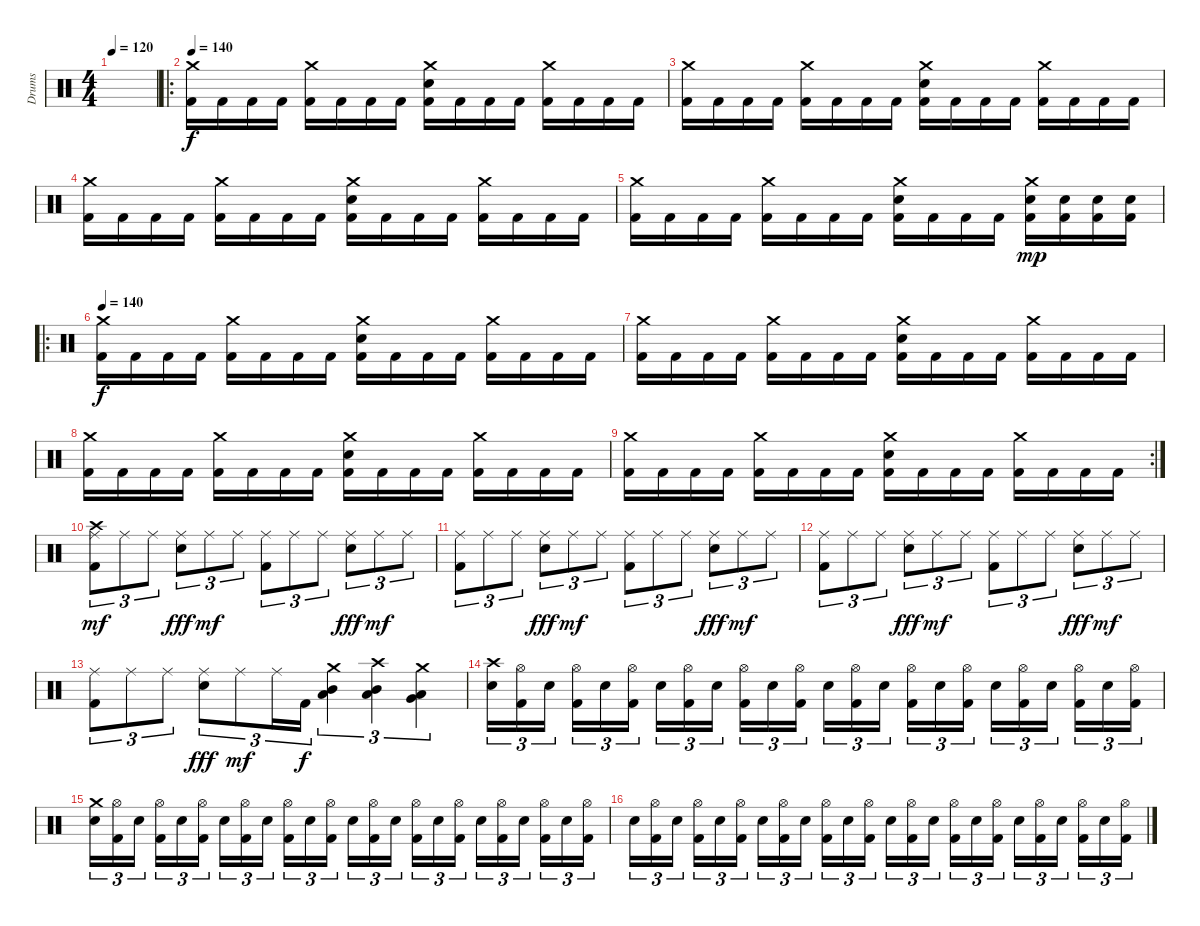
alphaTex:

\track ("Drums" "Drums") {instrument percussion}
\staff {score}
\articulation defaults
\ts (4 4)
\tempo 120
\clef neutral
\ks c
|
\ro
\tempo 140
("Crash medium (hit)" "Kick (hit) 2").16{volume 16} "Kick (hit) 2".16 "Kick (hit) 2".16 "Kick (hit) 2".16 ("Crash medium (hit)" "Kick (hit) 2").16 "Kick (hit) 2".16 "Kick (hit) 2".16 "Kick (hit) 2".16 ("Crash medium (hit)" "Electric Snare (hit)" "Kick (hit) 2").16 "Kick (hit) 2".16 "Kick (hit) 2".16 "Kick (hit) 2".16 ("Crash medium (hit)" "Kick (hit) 2").16 "Kick (hit) 2".16 "Kick (hit) 2".16 "Kick (hit) 2".16 |
("Crash medium (hit)" "Kick (hit) 2").16 "Kick (hit) 2".16 "Kick (hit) 2".16 "Kick (hit) 2".16 ("Crash medium (hit)" "Kick (hit) 2").16 "Kick (hit) 2".16 "Kick (hit) 2".16 "Kick (hit) 2".16 ("Crash medium (hit)" "Electric Snare (hit)" "Kick (hit) 2").16 "Kick (hit) 2".16 "Kick (hit) 2".16 "Kick (hit) 2".16 ("Crash medium (hit)" "Kick (hit) 2").16 "Kick (hit) 2".16 "Kick (hit) 2".16 "Kick (hit) 2".16 |
("Crash medium (hit)" "Kick (hit) 2").16{volume 16} "Kick (hit) 2".16 "Kick (hit) 2".16 "Kick (hit) 2".16 ("Crash medium (hit)" "Kick (hit) 2").16 "Kick (hit) 2".16 "Kick (hit) 2".16 "Kick (hit) 2".16 ("Crash medium (hit)" "Electric Snare (hit)" "Kick (hit) 2").16 "Kick (hit) 2".16 "Kick (hit) 2".16 "Kick (hit) 2".16 ("Crash medium (hit)" "Kick (hit) 2").16 "Kick (hit) 2".16 "Kick (hit) 2".16 "Kick (hit) 2".16 |
("Crash medium (hit)" "Kick (hit) 2").16{volume 16} "Kick (hit) 2".16 "Kick (hit) 2".16 "Kick (hit) 2".16 ("Crash medium (hit)" "Kick (hit) 2").16 "Kick (hit) 2".16 "Kick (hit) 2".16 "Kick (hit) 2".16 ("Crash medium (hit)" "Electric Snare (hit)" "Kick (hit) 2").16 "Kick (hit) 2".16 "Kick (hit) 2".16 "Kick (hit) 2".16 ("Crash medium (hit)" "Electric Snare (hit)" "Kick (hit) 2").16{dy mp} ("Electric Snare (hit)" "Kick (hit) 2").16 ("Electric Snare (hit)" "Kick (hit) 2").16 ("Electric Snare (hit)" "Kick (hit) 2").16 |
\ro
\tempo 140
("Crash medium (hit)" "Kick (hit) 2").16{dy f volume 16} "Kick (hit) 2".16 "Kick (hit) 2".16 "Kick (hit) 2".16 ("Crash medium (hit)" "Kick (hit) 2").16 "Kick (hit) 2".16 "Kick (hit) 2".16 "Kick (hit) 2".16 ("Crash medium (hit)" "Electric Snare (hit)" "Kick (hit) 2").16 "Kick (hit) 2".16 "Kick (hit) 2".16 "Kick (hit) 2".16 ("Crash medium (hit)" "Kick (hit) 2").16 "Kick (hit) 2".16 "Kick (hit) 2".16 "Kick (hit) 2".16 |
("Crash medium (hit)" "Kick (hit) 2").16 "Kick (hit) 2".16 "Kick (hit) 2".16 "Kick (hit) 2".16 ("Crash medium (hit)" "Kick (hit) 2").16 "Kick (hit) 2".16 "Kick (hit) 2".16 "Kick (hit) 2".16 ("Crash medium (hit)" "Electric Snare (hit)" "Kick (hit) 2").16 "Kick (hit) 2".16 "Kick (hit) 2".16 "Kick (hit) 2".16 ("Crash medium (hit)" "Kick (hit) 2").16 "Kick (hit) 2".16 "Kick (hit) 2".16 "Kick (hit) 2".16 |
("Crash medium (hit)" "Kick (hit) 2").16{volume 16} "Kick (hit) 2".16 "Kick (hit) 2".16 "Kick (hit) 2".16 ("Crash medium (hit)" "Kick (hit) 2").16 "Kick (hit) 2".16 "Kick (hit) 2".16 "Kick (hit) 2".16 ("Crash medium (hit)" "Electric Snare (hit)" "Kick (hit) 2").16 "Kick (hit) 2".16 "Kick (hit) 2".16 "Kick (hit) 2".16 ("Crash medium (hit)" "Kick (hit) 2").16 "Kick (hit) 2".16 "Kick (hit) 2".16 "Kick (hit) 2".16 |
\rc 2
("Crash medium (hit)" "Kick (hit) 2").16{volume 16} "Kick (hit) 2".16 "Kick (hit) 2".16 "Kick (hit) 2".16 ("Crash medium (hit)" "Kick (hit) 2").16 "Kick (hit) 2".16 "Kick (hit) 2".16 "Kick (hit) 2".16 ("Crash medium (hit)" "Electric Snare (hit)" "Kick (hit) 2").16 "Kick (hit) 2".16 "Kick (hit) 2".16 "Kick (hit) 2".16 ("Crash medium (hit)" "Kick (hit) 2").16 "Kick (hit) 2".16 "Kick (hit) 2".16 "Kick (hit) 2".16 |
("Crash high (hit)" "Ride (middle)" "Kick (hit) 2").8{tu (3 2) dy mf} "Ride (middle)".8{tu (3 2)} "Ride (middle)".8{tu (3 2)} ("Ride (middle)" "Electric Snare (hit)").8{tu (3 2) dy fff} "Ride (middle)".8{tu (3 2) dy mf} "Ride (middle)".8{tu (3 2)} ("Ride (middle)" "Kick (hit) 2").8{tu (3 2)} "Ride (middle)".8{tu (3 2)} "Ride (middle)".8{tu (3 2)} ("Ride (middle)" "Electric Snare (hit)").8{tu (3 2) dy fff} "Ride (middle)".8{tu (3 2) dy mf} "Ride (middle)".8{tu (3 2)} |
("Ride (middle)" "Kick (hit) 2").8{tu (3 2)} "Ride (middle)".8{tu (3 2)} "Ride (middle)".8{tu (3 2)} ("Ride (middle)" "Electric Snare (hit)").8{tu (3 2) dy fff} "Ride (middle)".8{tu (3 2) dy mf} "Ride (middle)".8{tu (3 2)} ("Ride (middle)" "Kick (hit) 2").8{tu (3 2)} "Ride (middle)".8{tu (3 2)} "Ride (middle)".8{tu (3 2)} ("Ride (middle)" "Electric Snare (hit)").8{tu (3 2) dy fff} "Ride (middle)".8{tu (3 2) dy mf} "Ride (middle)".8{tu (3 2)} |
("Ride (middle)" "Kick (hit) 2").8{tu (3 2)} "Ride (middle)".8{tu (3 2)} "Ride (middle)".8{tu (3 2)} ("Ride (middle)" "Electric Snare (hit)").8{tu (3 2) dy fff} "Ride (middle)".8{tu (3 2) dy mf} "Ride (middle)".8{tu (3 2)} ("Ride (middle)" "Kick (hit) 2").8{tu (3 2)} "Ride (middle)".8{tu (3 2)} "Ride (middle)".8{tu (3 2)} ("Ride (middle)" "Electric Snare (hit)").8{tu (3 2) dy fff} "Ride (middle)".8{tu (3 2) dy mf} "Ride (middle)".8{tu (3 2)} |
("Ride (middle)" "Kick (hit) 2").8{tu (3 2)} "Ride (middle)".8{tu (3 2)} "Ride (middle)".8{tu (3 2)} ("Ride (middle)" "Electric Snare (hit)").8{tu (3 2) dy fff} "Ride (middle)".8{tu (3 2) dy mf} "Ride (middle)".16{tu (3 2)} "Kick (hit) 2".16{tu (3 2) dy f} ("Crash medium (hit)" "Mid Tom (hit)" "Low Tom (hit)").4{tu (3 2)} ("Crash high (hit)" "Mid Tom (hit)" "Low Tom (hit)").4{tu (3 2)} ("Crash medium (hit)" "Low Tom (hit)" "Very Low Tom (hit)").4{tu (3 2)} |
("Crash high (hit)" "Electric Snare (hit)").16{tu (3 2)} ("Hi-Hat (open)" "Kick (hit) 2").16{tu (3 2)} "Electric Snare (hit)".16{tu (3 2)} ("Hi-Hat (open)" "Kick (hit) 2").16{tu (3 2)} "Electric Snare (hit)".16{tu (3 2)} ("Hi-Hat (open)" "Kick (hit) 2").16{tu (3 2)} "Electric Snare (hit)".16{tu (3 2)} ("Hi-Hat (open)" "Kick (hit) 2").16{tu (3 2)} "Electric Snare (hit)".16{tu (3 2)} ("Hi-Hat (open)" "Kick (hit) 2").16{tu (3 2)} "Electric Snare (hit)".16{tu (3 2)} ("Hi-Hat (open)" "Kick (hit) 2").16{tu (3 2)} "Electric Snare (hit)".16{tu (3 2)} ("Hi-Hat (open)" "Kick (hit) 2").16{tu (3 2)} "Electric Snare (hit)".16{tu (3 2)} ("Hi-Hat (open)" "Kick (hit) 2").16{tu (3 2)} "Electric Snare (hit)".16{tu (3 2)} ("Hi-Hat (open)" "Kick (hit) 2").16{tu (3 2)} "Electric Snare (hit)".16{tu (3 2)} ("Hi-Hat (open)" "Kick (hit) 2").16{tu (3 2)} "Electric Snare (hit)".16{tu (3 2)} ("Hi-Hat (open)" "Kick (hit) 2").16{tu (3 2)} "Electric Snare (hit)".16{tu (3 2)} ("Hi-Hat (open)" "Kick (hit) 2").16{tu (3 2)} |
("Crash medium (hit)" "Electric Snare (hit)").16{tu (3 2)} ("Hi-Hat (open)" "Kick (hit) 2").16{tu (3 2)} "Electric Snare (hit)".16{tu (3 2)} ("Hi-Hat (open)" "Kick (hit) 2").16{tu (3 2)} "Electric Snare (hit)".16{tu (3 2)} ("Hi-Hat (open)" "Kick (hit) 2").16{tu (3 2)} "Electric Snare (hit)".16{tu (3 2)} ("Hi-Hat (open)" "Kick (hit) 2").16{tu (3 2)} "Electric Snare (hit)".16{tu (3 2)} ("Hi-Hat (open)" "Kick (hit) 2").16{tu (3 2)} "Electric Snare (hit)".16{tu (3 2)} ("Hi-Hat (open)" "Kick (hit) 2").16{tu (3 2)} "Electric Snare (hit)".16{tu (3 2)} ("Hi-Hat (open)" "Kick (hit) 2").16{tu (3 2)} "Electric Snare (hit)".16{tu (3 2)} ("Hi-Hat (open)" "Kick (hit) 2").16{tu (3 2)} "Electric Snare (hit)".16{tu (3 2)} ("Hi-Hat (open)" "Kick (hit) 2").16{tu (3 2)} "Electric Snare (hit)".16{tu (3 2)} ("Hi-Hat (open)" "Kick (hit) 2").16{tu (3 2)} "Electric Snare (hit)".16{tu (3 2)} ("Hi-Hat (open)" "Kick (hit) 2").16{tu (3 2)} "Electric Snare (hit)".16{tu (3 2)} ("Hi-Hat (open)" "Kick (hit) 2").16{tu (3 2)} |
"Electric Snare (hit)".16{tu (3 2)} ("Hi-Hat (open)" "Kick (hit) 2").16{tu (3 2)} "Electric Snare (hit)".16{tu (3 2)} ("Hi-Hat (open)" "Kick (hit) 2").16{tu (3 2)} "Electric Snare (hit)".16{tu (3 2)} ("Hi-Hat (open)" "Kick (hit) 2").16{tu (3 2)} "Electric Snare (hit)".16{tu (3 2)} ("Hi-Hat (open)" "Kick (hit) 2").16{tu (3 2)} "Electric Snare (hit)".16{tu (3 2)} ("Hi-Hat (open)" "Kick (hit) 2").16{tu (3 2)} "Electric Snare (hit)".16{tu (3 2)} ("Hi-Hat (open)" "Kick (hit) 2").16{tu (3 2)} "Electric Snare (hit)".16{tu (3 2)} ("Hi-Hat (open)" "Kick (hit) 2").16{tu (3 2)} "Electric Snare (hit)".16{tu (3 2)} ("Hi-Hat (open)" "Kick (hit) 2").16{tu (3 2)} "Electric Snare (hit)".16{tu (3 2)} ("Hi-Hat (open)" "Kick (hit) 2").16{tu (3 2)} "Electric Snare (hit)".16{tu (3 2)} ("Hi-Hat (open)" "Kick (hit) 2").16{tu (3 2)} "Electric Snare (hit)".16{tu (3 2)} ("Hi-Hat (open)" "Kick (hit) 2").16{tu (3 2)} "Electric Snare (hit)".16{tu (3 2)} ("Hi-Hat (open)" "Kick (hit) 2").16{tu (3 2)}
